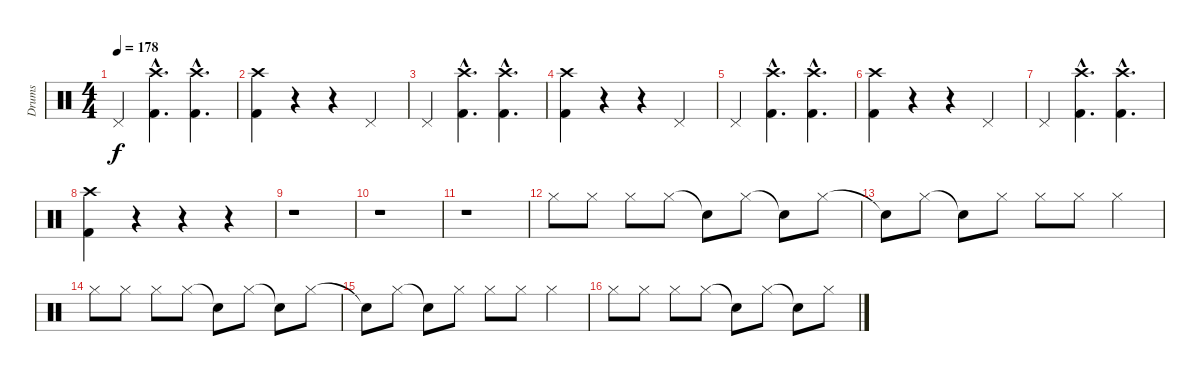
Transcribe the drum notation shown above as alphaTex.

\track ("Drums" "Drums") {instrument percussion}
\staff {score}
\articulation defaults
\ts (4 4)
\tempo 178
\clef neutral
\ks c "Pedal Hi-Hat (hit)".4{dy f}
("Crash high (hit)"{hac} "Kick (hit) 2"{hac}).4{d} ("Crash high (hit)"{hac} "Kick (hit) 2"{hac}).4{d} |
("Crash high (hit)" "Kick (hit) 2").4 r.4 r.4 "Pedal Hi-Hat (hit)".4 |
"Pedal Hi-Hat (hit)".4 ("Crash high (hit)"{hac} "Kick (hit) 2"{hac}).4{d} ("Crash high (hit)"{hac} "Kick (hit) 2"{hac}).4{d} |
("Crash high (hit)" "Kick (hit) 2").4 r.4 r.4 "Pedal Hi-Hat (hit)".4 |
"Pedal Hi-Hat (hit)".4 ("Crash high (hit)"{hac} "Kick (hit) 2"{hac}).4{d} ("Crash high (hit)"{hac} "Kick (hit) 2"{hac}).4{d} |
("Crash high (hit)" "Kick (hit) 2").4 r.4 r.4 "Pedal Hi-Hat (hit)".4 |
"Pedal Hi-Hat (hit)".4 ("Crash high (hit)"{hac} "Kick (hit) 2"{hac}).4{d} ("Crash high (hit)"{hac} "Kick (hit) 2"{hac}).4{d} |
("Crash high (hit)" "Kick (hit) 2").4 r.4 r.4 r.4 |
r.1 |
r.1 |
r.1 |
"Hi-Hat (closed)".8 "Hi-Hat (closed)".8 "Hi-Hat (closed)".8 "Hi-Hat (closed)".8 "Snare (hit)"{t}.8 "Hi-Hat (closed)".8 "Snare (hit)"{t}.8 "Hi-Hat (closed)".8 |
"Snare (hit)"{t}.8 "Hi-Hat (closed)".8 "Snare (hit)"{t}.8 "Hi-Hat (closed)".8 "Hi-Hat (closed)".8 "Hi-Hat (closed)".8 "Hi-Hat (closed)".4 |
"Hi-Hat (closed)".8 "Hi-Hat (closed)".8 "Hi-Hat (closed)".8 "Hi-Hat (closed)".8 "Snare (hit)"{t}.8 "Hi-Hat (closed)".8 "Snare (hit)"{t}.8 "Hi-Hat (closed)".8 |
"Snare (hit)"{t}.8 "Hi-Hat (closed)".8 "Snare (hit)"{t}.8 "Hi-Hat (closed)".8 "Hi-Hat (closed)".8 "Hi-Hat (closed)".8 "Hi-Hat (closed)".4 |
"Hi-Hat (closed)".8 "Hi-Hat (closed)".8 "Hi-Hat (closed)".8 "Hi-Hat (closed)".8 "Snare (hit)"{t}.8 "Hi-Hat (closed)".8 "Snare (hit)"{t}.8 "Hi-Hat (closed)".8
